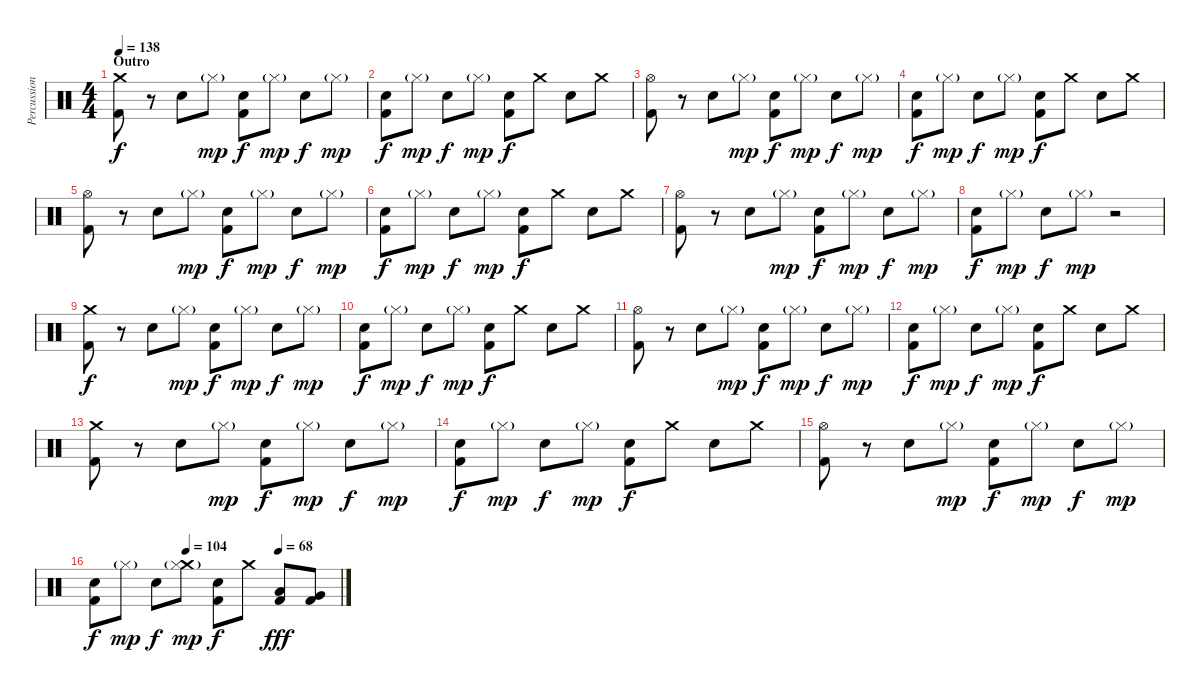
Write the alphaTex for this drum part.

\track ("Percussion" "Percussion") {instrument percussion}
\staff {score}
\articulation defaults
\ts (4 4)
\section ("" "Outro")
\tempo 138
\clef neutral
\ks c
("Crash medium (hit)" "Kick (hit) 2").8{dy f} r.8 "Snare (hit) 2".8 "Hi-Hat (closed)"{g}.8{dy mp} ("Snare (hit) 2" "Kick (hit) 2").8{dy f} "Hi-Hat (closed)"{g}.8{dy mp} "Snare (hit) 2".8{dy f} "Hi-Hat (closed)"{g}.8{dy mp} |
("Snare (hit) 2" "Kick (hit) 2").8{dy f} "Hi-Hat (closed)"{g}.8{dy mp} "Snare (hit) 2".8{dy f} "Hi-Hat (closed)"{g}.8{dy mp} ("Snare (hit) 2" "Kick (hit) 2").8{dy f} "Crash medium (hit)".8 "Snare (hit) 2".8 "Crash medium (hit)".8 |
("Hi-Hat (open)" "Kick (hit) 2").8 r.8 "Snare (hit) 2".8 "Hi-Hat (closed)"{g}.8{dy mp} ("Snare (hit) 2" "Kick (hit) 2").8{dy f} "Hi-Hat (closed)"{g}.8{dy mp} "Snare (hit) 2".8{dy f} "Hi-Hat (closed)"{g}.8{dy mp} |
("Snare (hit) 2" "Kick (hit) 2").8{dy f} "Hi-Hat (closed)"{g}.8{dy mp} "Snare (hit) 2".8{dy f} "Hi-Hat (closed)"{g}.8{dy mp} ("Snare (hit) 2" "Kick (hit) 2").8{dy f} "Crash medium (hit)".8 "Snare (hit) 2".8 "Crash medium (hit)".8 |
("Hi-Hat (open)" "Kick (hit) 2").8 r.8 "Snare (hit) 2".8 "Hi-Hat (closed)"{g}.8{dy mp} ("Snare (hit) 2" "Kick (hit) 2").8{dy f} "Hi-Hat (closed)"{g}.8{dy mp} "Snare (hit) 2".8{dy f} "Hi-Hat (closed)"{g}.8{dy mp} |
("Snare (hit) 2" "Kick (hit) 2").8{dy f} "Hi-Hat (closed)"{g}.8{dy mp} "Snare (hit) 2".8{dy f} "Hi-Hat (closed)"{g}.8{dy mp} ("Snare (hit) 2" "Kick (hit) 2").8{dy f} "Crash medium (hit)".8 "Snare (hit) 2".8 "Crash medium (hit)".8 |
("Hi-Hat (open)" "Kick (hit) 2").8 r.8 "Snare (hit) 2".8 "Hi-Hat (closed)"{g}.8{dy mp} ("Snare (hit) 2" "Kick (hit) 2").8{dy f} "Hi-Hat (closed)"{g}.8{dy mp} "Snare (hit) 2".8{dy f} "Hi-Hat (closed)"{g}.8{dy mp} |
("Snare (hit) 2" "Kick (hit) 2").8{dy f} "Hi-Hat (closed)"{g}.8{dy mp} "Snare (hit) 2".8{dy f} "Hi-Hat (closed)"{g}.8{dy mp} r.2 |
("Crash medium (hit)" "Kick (hit) 2").8{dy f} r.8 "Snare (hit) 2".8 "Hi-Hat (closed)"{g}.8{dy mp} ("Snare (hit) 2" "Kick (hit) 2").8{dy f} "Hi-Hat (closed)"{g}.8{dy mp} "Snare (hit) 2".8{dy f} "Hi-Hat (closed)"{g}.8{dy mp} |
("Snare (hit) 2" "Kick (hit) 2").8{dy f} "Hi-Hat (closed)"{g}.8{dy mp} "Snare (hit) 2".8{dy f} "Hi-Hat (closed)"{g}.8{dy mp} ("Snare (hit) 2" "Kick (hit) 2").8{dy f} "Crash medium (hit)".8 "Snare (hit) 2".8 "Crash medium (hit)".8 |
("Hi-Hat (open)" "Kick (hit) 2").8 r.8 "Snare (hit) 2".8 "Hi-Hat (closed)"{g}.8{dy mp} ("Snare (hit) 2" "Kick (hit) 2").8{dy f} "Hi-Hat (closed)"{g}.8{dy mp} "Snare (hit) 2".8{dy f} "Hi-Hat (closed)"{g}.8{dy mp} |
("Snare (hit) 2" "Kick (hit) 2").8{dy f} "Hi-Hat (closed)"{g}.8{dy mp} "Snare (hit) 2".8{dy f} "Hi-Hat (closed)"{g}.8{dy mp} ("Snare (hit) 2" "Kick (hit) 2").8{dy f} "Crash medium (hit)".8 "Snare (hit) 2".8 "Crash medium (hit)".8 |
("Crash medium (hit)" "Kick (hit) 2").8 r.8 "Snare (hit) 2".8 "Hi-Hat (closed)"{g}.8{dy mp} ("Snare (hit) 2" "Kick (hit) 2").8{dy f} "Hi-Hat (closed)"{g}.8{dy mp} "Snare (hit) 2".8{dy f} "Hi-Hat (closed)"{g}.8{dy mp} |
("Snare (hit) 2" "Kick (hit) 2").8{dy f} "Hi-Hat (closed)"{g}.8{dy mp} "Snare (hit) 2".8{dy f} "Hi-Hat (closed)"{g}.8{dy mp} ("Snare (hit) 2" "Kick (hit) 2").8{dy f} "Crash medium (hit)".8 "Snare (hit) 2".8 "Crash medium (hit)".8 |
("Hi-Hat (open)" "Kick (hit) 2").8 r.8 "Snare (hit) 2".8 "Hi-Hat (closed)"{g}.8{dy mp} ("Snare (hit) 2" "Kick (hit) 2").8{dy f} "Hi-Hat (closed)"{g}.8{dy mp} "Snare (hit) 2".8{dy f} "Hi-Hat (closed)"{g}.8{dy mp} |
\tempo (104 0.375)
\tempo (68 0.75)
("Snare (hit) 2" "Kick (hit) 2").8{dy f} "Hi-Hat (closed)"{g}.8{dy mp} "Snare (hit) 2".8{dy f} ("Crash medium (hit)" "Hi-Hat (closed)"{g}).8{dy mp} ("Snare (hit) 2" "Kick (hit) 2").8{dy f} "Crash medium (hit)".8 ("Low Tom (hit)" "Kick (hit) 2").8{dy fff} ("Very Low Tom (hit)" "Kick (hit) 2").8
